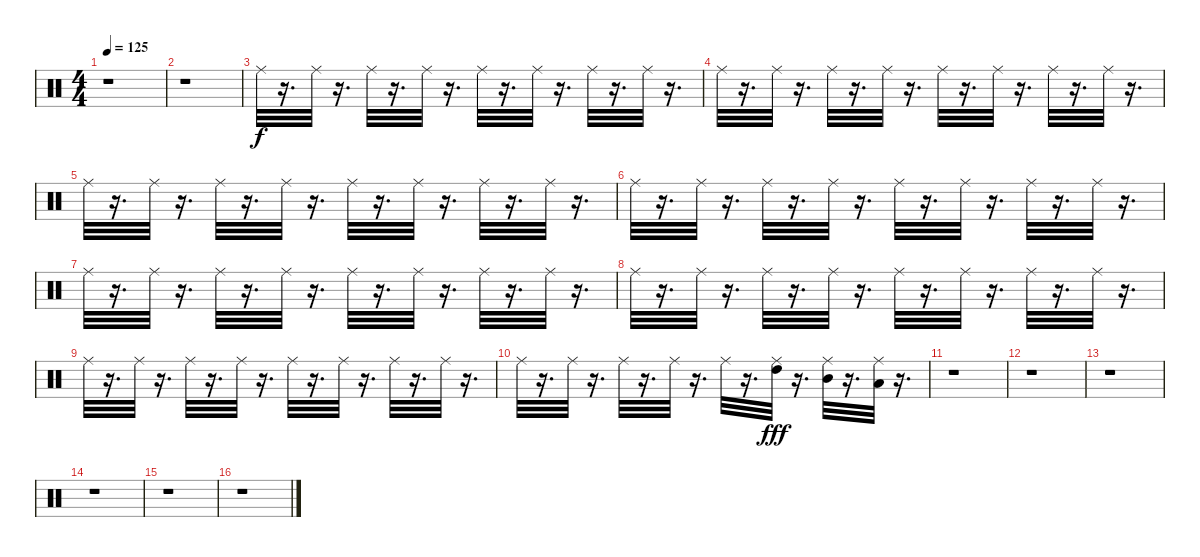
\track "" {instrument percussion}
\staff {score}
\articulation defaults
\ts (4 4)
\tempo 125
\clef neutral
\ks c
r.1{dy f} |
r.1 |
"Ride (middle)".32 r.16{d} "Ride (middle)".32 r.16{d} "Ride (middle)".32 r.16{d} "Ride (middle)".32 r.16{d} "Ride (middle)".32 r.16{d} "Ride (middle)".32 r.16{d} "Ride (middle)".32 r.16{d} "Ride (middle)".32 r.16{d} |
"Ride (middle)".32 r.16{d} "Ride (middle)".32 r.16{d} "Ride (middle)".32 r.16{d} "Ride (middle)".32 r.16{d} "Ride (middle)".32 r.16{d} "Ride (middle)".32 r.16{d} "Ride (middle)".32 r.16{d} "Ride (middle)".32 r.16{d} |
"Ride (middle)".32 r.16{d} "Ride (middle)".32 r.16{d} "Ride (middle)".32 r.16{d} "Ride (middle)".32 r.16{d} "Ride (middle)".32 r.16{d} "Ride (middle)".32 r.16{d} "Ride (middle)".32 r.16{d} "Ride (middle)".32 r.16{d} |
"Ride (middle)".32 r.16{d} "Ride (middle)".32 r.16{d} "Ride (middle)".32 r.16{d} "Ride (middle)".32 r.16{d} "Ride (middle)".32 r.16{d} "Ride (middle)".32 r.16{d} "Ride (middle)".32 r.16{d} "Ride (middle)".32 r.16{d} |
"Ride (middle)".32 r.16{d} "Ride (middle)".32 r.16{d} "Ride (middle)".32 r.16{d} "Ride (middle)".32 r.16{d} "Ride (middle)".32 r.16{d} "Ride (middle)".32 r.16{d} "Ride (middle)".32 r.16{d} "Ride (middle)".32 r.16{d} |
"Ride (middle)".32 r.16{d} "Ride (middle)".32 r.16{d} "Ride (middle)".32 r.16{d} "Ride (middle)".32 r.16{d} "Ride (middle)".32 r.16{d} "Ride (middle)".32 r.16{d} "Ride (middle)".32 r.16{d} "Ride (middle)".32 r.16{d} |
"Ride (middle)".32 r.16{d} "Ride (middle)".32 r.16{d} "Ride (middle)".32 r.16{d} "Ride (middle)".32 r.16{d} "Ride (middle)".32 r.16{d} "Ride (middle)".32 r.16{d} "Ride (middle)".32 r.16{d} "Ride (middle)".32 r.16{d} |
"Ride (middle)".32 r.16{d} "Ride (middle)".32 r.16{d} "Ride (middle)".32 r.16{d} "Ride (middle)".32 r.16{d} "Ride (middle)".32 r.16{d} ("High Tom (hit)" "Ride (middle)").32{dy fff} r.16{d} ("Mid Tom (hit)" "Ride (middle)").32 r.16{d} ("Low Tom (hit)" "Ride (middle)").32 r.16{d} |
r.1 |
r.1 |
r.1 |
r.1 |
r.1 |
r.1
